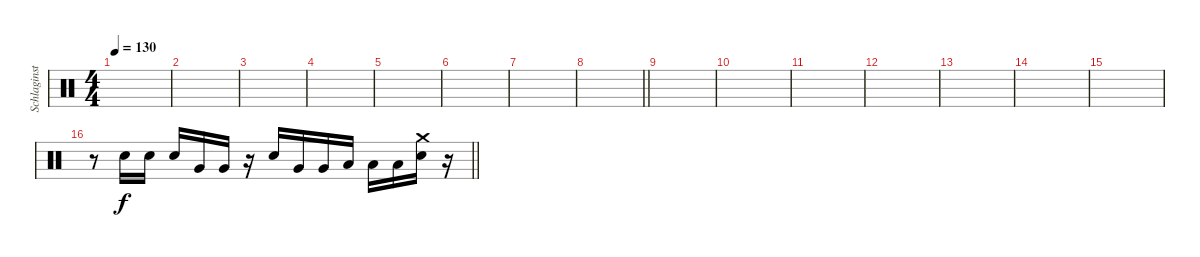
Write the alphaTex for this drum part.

\track ("Schlaginstrumente - Auswahl" "Schlaginst") {instrument percussion}
\staff {score}
\articulation defaults
\ts (4 4)
\tempo 130
\clef neutral
\ks c
|
|
|
|
|
|
|
\barLineRight lightlight
|
|
|
|
|
|
|
|
\barLineRight lightlight
r.8 "Electric Snare (hit)".16 "Electric Snare (hit)".16 "Electric Snare (hit)".16 "Very Low Tom (hit)".16 "Very Low Tom (hit)".16 r.16 "Electric Snare (hit)".16 "Very Low Tom (hit)".16 "Very Low Tom (hit)".16 "Low Floor Tom (hit)".16 "Low Floor Tom (hit)".16 "Low Floor Tom (hit)".16 ("Crash medium (hit)" "Electric Snare (hit)").16 r.16
